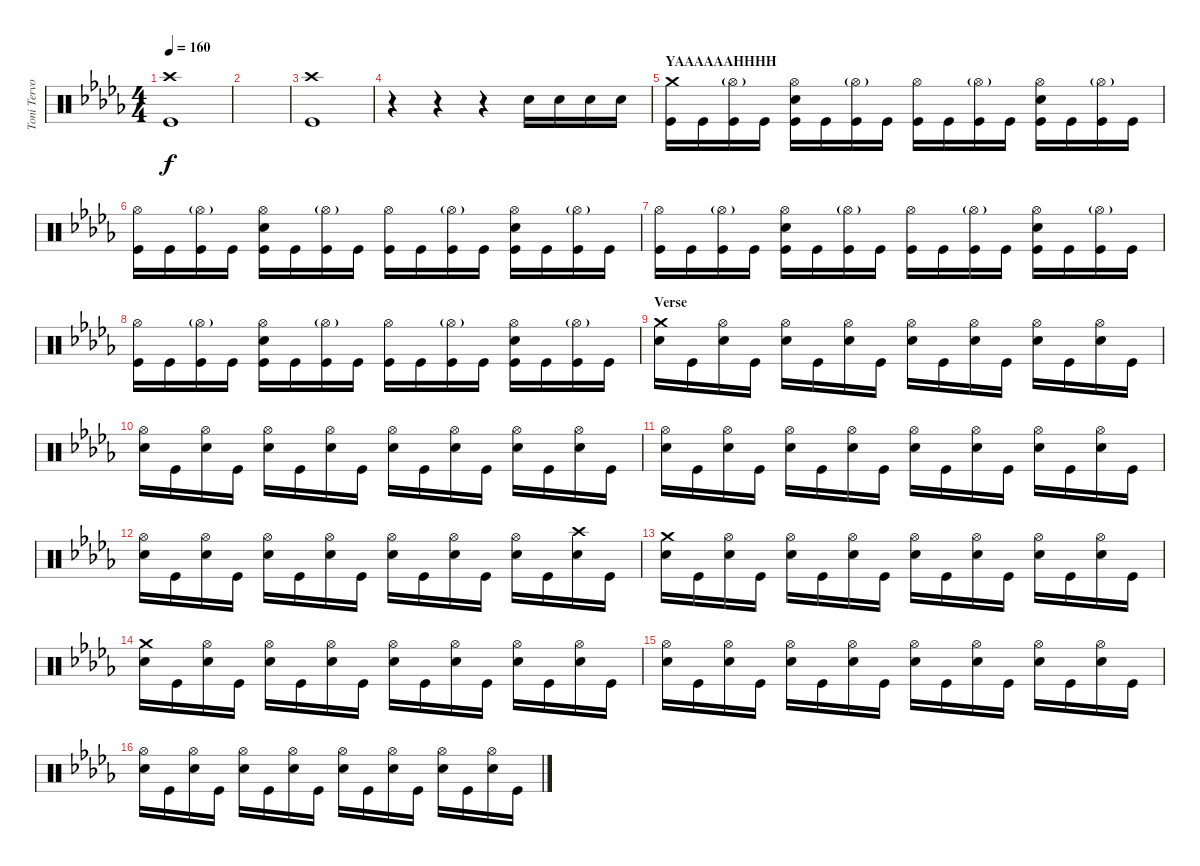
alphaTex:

\track ("Toni Tervo (drums)" "Toni Tervo") {instrument percussion}
\staff {score}
\articulation defaults
\ts (4 4)
\tempo 160
\clef neutral
\ks bbminor
("Kick (hit)" "Crash high (hit)").1{dy f} |
|
("Kick (hit)" "Crash high (hit)").1 |
r.4 r.4 r.4 "Snare (hit) 2".16 "Snare (hit) 2".16 "Snare (hit) 2".16 "Snare (hit) 2".16 |
\section ("" "YAAAAAAHHHH")
("Kick (hit)" "Crash medium (hit)").16 "Kick (hit)".16 ("Kick (hit)" "Hi-Hat (open)"{g}).16 "Kick (hit)".16 ("Kick (hit)" "Snare (hit) 2" "Hi-Hat (open)").16 "Kick (hit)".16 ("Kick (hit)" "Hi-Hat (open)"{g}).16 "Kick (hit)".16 ("Kick (hit)" "Hi-Hat (open)").16 "Kick (hit)".16 ("Kick (hit)" "Hi-Hat (open)"{g}).16 "Kick (hit)".16 ("Kick (hit)" "Snare (hit) 2" "Hi-Hat (open)").16 "Kick (hit)".16 ("Kick (hit)" "Hi-Hat (open)"{g}).16 "Kick (hit)".16 |
("Kick (hit)" "Hi-Hat (open)").16 "Kick (hit)".16 ("Kick (hit)" "Hi-Hat (open)"{g}).16 "Kick (hit)".16 ("Kick (hit)" "Snare (hit) 2" "Hi-Hat (open)").16 "Kick (hit)".16 ("Kick (hit)" "Hi-Hat (open)"{g}).16 "Kick (hit)".16 ("Kick (hit)" "Hi-Hat (open)").16 "Kick (hit)".16 ("Kick (hit)" "Hi-Hat (open)"{g}).16 "Kick (hit)".16 ("Kick (hit)" "Snare (hit) 2" "Hi-Hat (open)").16 "Kick (hit)".16 ("Kick (hit)" "Hi-Hat (open)"{g}).16 "Kick (hit)".16 |
("Kick (hit)" "Hi-Hat (open)").16 "Kick (hit)".16 ("Kick (hit)" "Hi-Hat (open)"{g}).16 "Kick (hit)".16 ("Kick (hit)" "Snare (hit) 2" "Hi-Hat (open)").16 "Kick (hit)".16 ("Kick (hit)" "Hi-Hat (open)"{g}).16 "Kick (hit)".16 ("Kick (hit)" "Hi-Hat (open)").16 "Kick (hit)".16 ("Kick (hit)" "Hi-Hat (open)"{g}).16 "Kick (hit)".16 ("Kick (hit)" "Snare (hit) 2" "Hi-Hat (open)").16 "Kick (hit)".16 ("Kick (hit)" "Hi-Hat (open)"{g}).16 "Kick (hit)".16 |
("Kick (hit)" "Hi-Hat (open)").16 "Kick (hit)".16 ("Kick (hit)" "Hi-Hat (open)"{g}).16 "Kick (hit)".16 ("Kick (hit)" "Snare (hit) 2" "Hi-Hat (open)").16 "Kick (hit)".16 ("Kick (hit)" "Hi-Hat (open)"{g}).16 "Kick (hit)".16 ("Kick (hit)" "Hi-Hat (open)").16 "Kick (hit)".16 ("Kick (hit)" "Hi-Hat (open)"{g}).16 "Kick (hit)".16 ("Kick (hit)" "Snare (hit) 2" "Hi-Hat (open)").16 "Kick (hit)".16 ("Kick (hit)" "Hi-Hat (open)"{g}).16 "Kick (hit)".16 |
\section ("" "Verse")
("Snare (hit) 2" "Crash medium (hit)").16 "Kick (hit)".16 ("Snare (hit) 2" "Hi-Hat (open)").16 "Kick (hit)".16 ("Snare (hit) 2" "Hi-Hat (open)").16 "Kick (hit)".16 ("Snare (hit) 2" "Hi-Hat (open)").16 "Kick (hit)".16 ("Snare (hit) 2" "Hi-Hat (open)").16 "Kick (hit)".16 ("Snare (hit) 2" "Hi-Hat (open)").16 "Kick (hit)".16 ("Snare (hit) 2" "Hi-Hat (open)").16 "Kick (hit)".16 ("Snare (hit) 2" "Hi-Hat (open)").16 "Kick (hit)".16 |
("Snare (hit) 2" "Hi-Hat (open)").16 "Kick (hit)".16 ("Snare (hit) 2" "Hi-Hat (open)").16 "Kick (hit)".16 ("Snare (hit) 2" "Hi-Hat (open)").16 "Kick (hit)".16 ("Snare (hit) 2" "Hi-Hat (open)").16 "Kick (hit)".16 ("Snare (hit) 2" "Hi-Hat (open)").16 "Kick (hit)".16 ("Snare (hit) 2" "Hi-Hat (open)").16 "Kick (hit)".16 ("Snare (hit) 2" "Hi-Hat (open)").16 "Kick (hit)".16 ("Snare (hit) 2" "Hi-Hat (open)").16 "Kick (hit)".16 |
("Snare (hit) 2" "Hi-Hat (open)").16 "Kick (hit)".16 ("Snare (hit) 2" "Hi-Hat (open)").16 "Kick (hit)".16 ("Snare (hit) 2" "Hi-Hat (open)").16 "Kick (hit)".16 ("Snare (hit) 2" "Hi-Hat (open)").16 "Kick (hit)".16 ("Snare (hit) 2" "Hi-Hat (open)").16 "Kick (hit)".16 ("Snare (hit) 2" "Hi-Hat (open)").16 "Kick (hit)".16 ("Snare (hit) 2" "Hi-Hat (open)").16 "Kick (hit)".16 ("Snare (hit) 2" "Hi-Hat (open)").16 "Kick (hit)".16 |
("Snare (hit) 2" "Hi-Hat (open)").16 "Kick (hit)".16 ("Snare (hit) 2" "Hi-Hat (open)").16 "Kick (hit)".16 ("Snare (hit) 2" "Hi-Hat (open)").16 "Kick (hit)".16 ("Snare (hit) 2" "Hi-Hat (open)").16 "Kick (hit)".16 ("Snare (hit) 2" "Hi-Hat (open)").16 "Kick (hit)".16 ("Snare (hit) 2" "Hi-Hat (open)").16 "Kick (hit)".16 ("Snare (hit) 2" "Hi-Hat (open)").16 "Kick (hit)".16 ("Snare (hit) 2" "Crash high (hit)").16 "Kick (hit)".16 |
("Snare (hit) 2" "Crash medium (hit)").16 "Kick (hit)".16 ("Snare (hit) 2" "Hi-Hat (open)").16 "Kick (hit)".16 ("Snare (hit) 2" "Hi-Hat (open)").16 "Kick (hit)".16 ("Snare (hit) 2" "Hi-Hat (open)").16 "Kick (hit)".16 ("Snare (hit) 2" "Hi-Hat (open)").16 "Kick (hit)".16 ("Snare (hit) 2" "Hi-Hat (open)").16 "Kick (hit)".16 ("Snare (hit) 2" "Hi-Hat (open)").16 "Kick (hit)".16 ("Snare (hit) 2" "Hi-Hat (open)").16 "Kick (hit)".16 |
("Snare (hit) 2" "Crash medium (hit)").16 "Kick (hit)".16 ("Snare (hit) 2" "Hi-Hat (open)").16 "Kick (hit)".16 ("Snare (hit) 2" "Hi-Hat (open)").16 "Kick (hit)".16 ("Snare (hit) 2" "Hi-Hat (open)").16 "Kick (hit)".16 ("Snare (hit) 2" "Hi-Hat (open)").16 "Kick (hit)".16 ("Snare (hit) 2" "Hi-Hat (open)").16 "Kick (hit)".16 ("Snare (hit) 2" "Hi-Hat (open)").16 "Kick (hit)".16 ("Snare (hit) 2" "Hi-Hat (open)").16 "Kick (hit)".16 |
("Snare (hit) 2" "Hi-Hat (open)").16 "Kick (hit)".16 ("Snare (hit) 2" "Hi-Hat (open)").16 "Kick (hit)".16 ("Snare (hit) 2" "Hi-Hat (open)").16 "Kick (hit)".16 ("Snare (hit) 2" "Hi-Hat (open)").16 "Kick (hit)".16 ("Snare (hit) 2" "Hi-Hat (open)").16 "Kick (hit)".16 ("Snare (hit) 2" "Hi-Hat (open)").16 "Kick (hit)".16 ("Snare (hit) 2" "Hi-Hat (open)").16 "Kick (hit)".16 ("Snare (hit) 2" "Hi-Hat (open)").16 "Kick (hit)".16 |
("Snare (hit) 2" "Hi-Hat (open)").16 "Kick (hit)".16 ("Snare (hit) 2" "Hi-Hat (open)").16 "Kick (hit)".16 ("Snare (hit) 2" "Hi-Hat (open)").16 "Kick (hit)".16 ("Snare (hit) 2" "Hi-Hat (open)").16 "Kick (hit)".16 ("Snare (hit) 2" "Hi-Hat (open)").16 "Kick (hit)".16 ("Snare (hit) 2" "Hi-Hat (open)").16 "Kick (hit)".16 ("Snare (hit) 2" "Hi-Hat (open)").16 "Kick (hit)".16 ("Snare (hit) 2" "Hi-Hat (open)").16 "Kick (hit)".16
